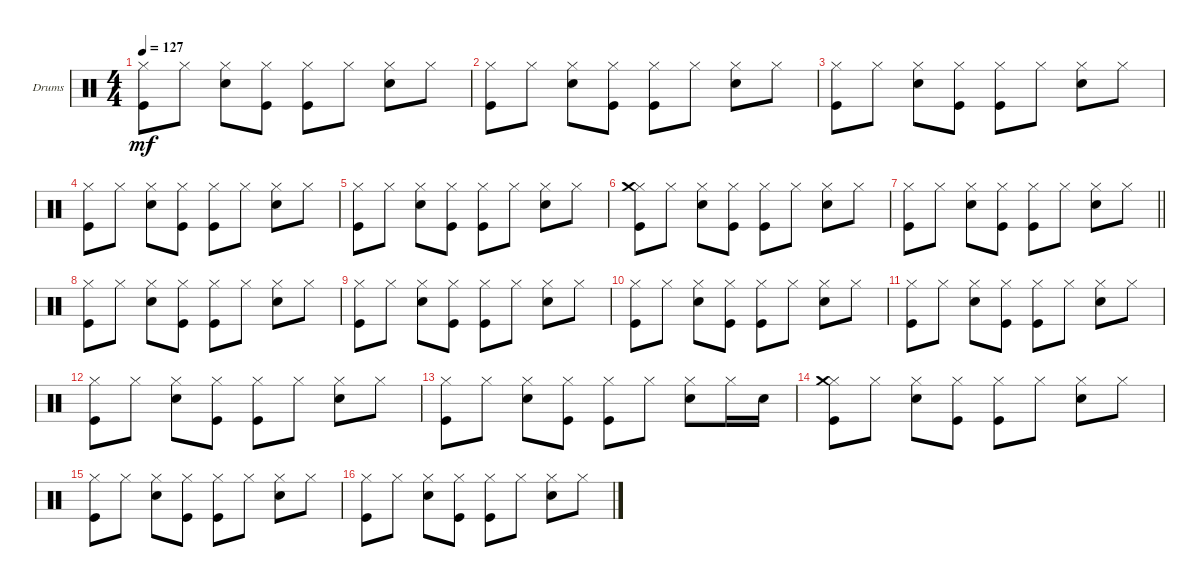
\defaultSystemsLayout 4
\bracketExtendMode groupsimilarinstruments
\firstSystemTrackNameOrientation horizontal
\otherSystemsTrackNameOrientation horizontal
\track ("Drumkit" "Drums") {instrument percussion}
\staff {score}
\articulation defaults
\ts (4 4)
\tempo 127
\clef neutral
\ks c
("Hi-Hat (closed)" "Kick (hit)").8{dy mf} "Hi-Hat (closed)".8 ("Snare (hit) 2" "Hi-Hat (closed)").8 ("Kick (hit)" "Hi-Hat (closed)").8 ("Kick (hit)" "Hi-Hat (closed)").8 "Hi-Hat (closed)".8 ("Snare (hit) 2" "Hi-Hat (closed)").8 "Hi-Hat (closed)".8 |
("Hi-Hat (closed)" "Kick (hit)").8 "Hi-Hat (closed)".8 ("Snare (hit) 2" "Hi-Hat (closed)").8 ("Kick (hit)" "Hi-Hat (closed)").8 ("Kick (hit)" "Hi-Hat (closed)").8 "Hi-Hat (closed)".8 ("Snare (hit) 2" "Hi-Hat (closed)").8 "Hi-Hat (closed)".8 |
("Hi-Hat (closed)" "Kick (hit)").8 "Hi-Hat (closed)".8 ("Snare (hit) 2" "Hi-Hat (closed)").8 ("Kick (hit)" "Hi-Hat (closed)").8 ("Kick (hit)" "Hi-Hat (closed)").8 "Hi-Hat (closed)".8 ("Snare (hit) 2" "Hi-Hat (closed)").8 "Hi-Hat (closed)".8 |
("Hi-Hat (closed)" "Kick (hit)").8 "Hi-Hat (closed)".8 ("Snare (hit) 2" "Hi-Hat (closed)").8 ("Kick (hit)" "Hi-Hat (closed)").8 ("Kick (hit)" "Hi-Hat (closed)").8 "Hi-Hat (closed)".8 ("Snare (hit) 2" "Hi-Hat (closed)").8 "Hi-Hat (closed)".8 |
("Hi-Hat (closed)" "Kick (hit)").8 "Hi-Hat (closed)".8 ("Snare (hit) 2" "Hi-Hat (closed)").8 ("Kick (hit)" "Hi-Hat (closed)").8 ("Kick (hit)" "Hi-Hat (closed)").8 "Hi-Hat (closed)".8 ("Snare (hit) 2" "Hi-Hat (closed)").8 "Hi-Hat (closed)".8 |
("Hi-Hat (closed)" "Kick (hit)" "Crash medium (hit)").8 "Hi-Hat (closed)".8 ("Snare (hit) 2" "Hi-Hat (closed)").8 ("Kick (hit)" "Hi-Hat (closed)").8 ("Kick (hit)" "Hi-Hat (closed)").8 "Hi-Hat (closed)".8 ("Snare (hit) 2" "Hi-Hat (closed)").8 "Hi-Hat (closed)".8 |
\barLineRight lightlight
("Hi-Hat (closed)" "Kick (hit)").8 "Hi-Hat (closed)".8 ("Snare (hit) 2" "Hi-Hat (closed)").8 ("Kick (hit)" "Hi-Hat (closed)").8 ("Kick (hit)" "Hi-Hat (closed)").8 "Hi-Hat (closed)".8 ("Snare (hit) 2" "Hi-Hat (closed)").8 "Hi-Hat (closed)".8 |
("Hi-Hat (closed)" "Kick (hit)").8 "Hi-Hat (closed)".8 ("Snare (hit) 2" "Hi-Hat (closed)").8 ("Kick (hit)" "Hi-Hat (closed)").8 ("Kick (hit)" "Hi-Hat (closed)").8 "Hi-Hat (closed)".8 ("Snare (hit) 2" "Hi-Hat (closed)").8 "Hi-Hat (closed)".8 |
("Hi-Hat (closed)" "Kick (hit)").8 "Hi-Hat (closed)".8 ("Snare (hit) 2" "Hi-Hat (closed)").8 ("Kick (hit)" "Hi-Hat (closed)").8 ("Kick (hit)" "Hi-Hat (closed)").8 "Hi-Hat (closed)".8 ("Snare (hit) 2" "Hi-Hat (closed)").8 "Hi-Hat (closed)".8 |
("Hi-Hat (closed)" "Kick (hit)").8 "Hi-Hat (closed)".8 ("Snare (hit) 2" "Hi-Hat (closed)").8 ("Kick (hit)" "Hi-Hat (closed)").8 ("Kick (hit)" "Hi-Hat (closed)").8 "Hi-Hat (closed)".8 ("Snare (hit) 2" "Hi-Hat (closed)").8 "Hi-Hat (closed)".8 |
("Hi-Hat (closed)" "Kick (hit)").8 "Hi-Hat (closed)".8 ("Snare (hit) 2" "Hi-Hat (closed)").8 ("Kick (hit)" "Hi-Hat (closed)").8 ("Kick (hit)" "Hi-Hat (closed)").8 "Hi-Hat (closed)".8 ("Snare (hit) 2" "Hi-Hat (closed)").8 "Hi-Hat (closed)".8 |
("Hi-Hat (closed)" "Kick (hit)").8 "Hi-Hat (closed)".8 ("Snare (hit) 2" "Hi-Hat (closed)").8 ("Kick (hit)" "Hi-Hat (closed)").8 ("Kick (hit)" "Hi-Hat (closed)").8 "Hi-Hat (closed)".8 ("Snare (hit) 2" "Hi-Hat (closed)").8 "Hi-Hat (closed)".8 |
("Hi-Hat (closed)" "Kick (hit)").8 "Hi-Hat (closed)".8 ("Snare (hit) 2" "Hi-Hat (closed)").8 ("Kick (hit)" "Hi-Hat (closed)").8 ("Kick (hit)" "Hi-Hat (closed)").8 "Hi-Hat (closed)".8 ("Snare (hit) 2" "Hi-Hat (closed)").8 "Hi-Hat (closed)".16 "Snare (hit) 2".16 |
("Hi-Hat (closed)" "Kick (hit)" "Crash medium (hit)").8 "Hi-Hat (closed)".8 ("Snare (hit) 2" "Hi-Hat (closed)").8 ("Kick (hit)" "Hi-Hat (closed)").8 ("Kick (hit)" "Hi-Hat (closed)").8 "Hi-Hat (closed)".8 ("Snare (hit) 2" "Hi-Hat (closed)").8 "Hi-Hat (closed)".8 |
("Hi-Hat (closed)" "Kick (hit)").8 "Hi-Hat (closed)".8 ("Snare (hit) 2" "Hi-Hat (closed)").8 ("Kick (hit)" "Hi-Hat (closed)").8 ("Kick (hit)" "Hi-Hat (closed)").8 "Hi-Hat (closed)".8 ("Snare (hit) 2" "Hi-Hat (closed)").8 "Hi-Hat (closed)".8 |
("Hi-Hat (closed)" "Kick (hit)").8 "Hi-Hat (closed)".8 ("Snare (hit) 2" "Hi-Hat (closed)").8 ("Kick (hit)" "Hi-Hat (closed)").8 ("Kick (hit)" "Hi-Hat (closed)").8 "Hi-Hat (closed)".8 ("Snare (hit) 2" "Hi-Hat (closed)").8 "Hi-Hat (closed)".8
